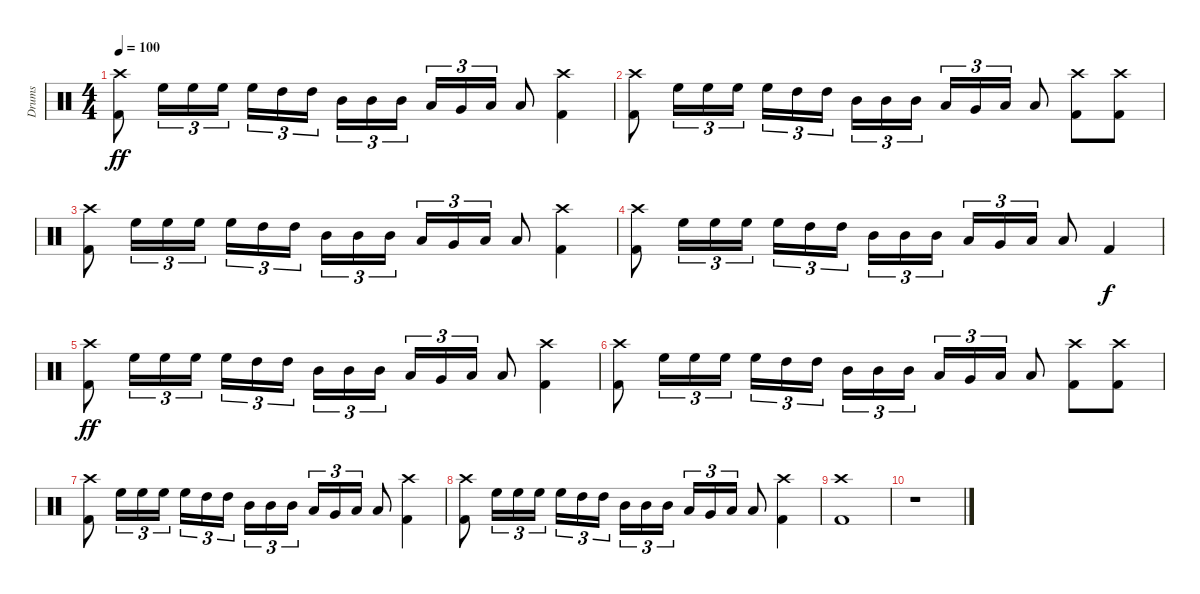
\track ("Drums     " "Drums     ") {instrument percussion}
\staff {score}
\articulation defaults
\ts (4 4)
\tempo 100
\clef neutral
\ks c
("Kick (hit) 2" "Crash high (hit)").8{dy ff} "High Floor Tom (hit)".16{tu (3 2)} "High Floor Tom (hit)".16{tu (3 2)} "High Floor Tom (hit)".16{tu (3 2)} "High Floor Tom (hit)".16{tu (3 2)} "High Tom (hit)".16{tu (3 2)} "High Tom (hit)".16{tu (3 2)} "Mid Tom (hit)".16{tu (3 2)} "Mid Tom (hit)".16{tu (3 2)} "Mid Tom (hit)".16{tu (3 2)} "Low Tom (hit)".16{tu (3 2)} "Very Low Tom (hit)".16{tu (3 2)} "Low Floor Tom (hit)".16{tu (3 2)} "Low Floor Tom (hit)".8 ("Kick (hit) 2" "Crash high (hit)").4 |
("Kick (hit) 2" "Crash high (hit)").8 "High Floor Tom (hit)".16{tu (3 2)} "High Floor Tom (hit)".16{tu (3 2)} "High Floor Tom (hit)".16{tu (3 2)} "High Floor Tom (hit)".16{tu (3 2)} "High Tom (hit)".16{tu (3 2)} "High Tom (hit)".16{tu (3 2)} "Mid Tom (hit)".16{tu (3 2)} "Mid Tom (hit)".16{tu (3 2)} "Mid Tom (hit)".16{tu (3 2)} "Low Tom (hit)".16{tu (3 2)} "Very Low Tom (hit)".16{tu (3 2)} "Low Floor Tom (hit)".16{tu (3 2)} "Low Floor Tom (hit)".8 ("Kick (hit) 2" "Crash high (hit)").8 ("Kick (hit) 2" "Crash high (hit)").8 |
("Kick (hit) 2" "Crash high (hit)").8 "High Floor Tom (hit)".16{tu (3 2)} "High Floor Tom (hit)".16{tu (3 2)} "High Floor Tom (hit)".16{tu (3 2)} "High Floor Tom (hit)".16{tu (3 2)} "High Tom (hit)".16{tu (3 2)} "High Tom (hit)".16{tu (3 2)} "Mid Tom (hit)".16{tu (3 2)} "Mid Tom (hit)".16{tu (3 2)} "Mid Tom (hit)".16{tu (3 2)} "Low Tom (hit)".16{tu (3 2)} "Very Low Tom (hit)".16{tu (3 2)} "Low Floor Tom (hit)".16{tu (3 2)} "Low Floor Tom (hit)".8 ("Kick (hit) 2" "Crash high (hit)").4 |
("Kick (hit) 2" "Crash high (hit)").8 "High Floor Tom (hit)".16{tu (3 2)} "High Floor Tom (hit)".16{tu (3 2)} "High Floor Tom (hit)".16{tu (3 2)} "High Floor Tom (hit)".16{tu (3 2)} "High Tom (hit)".16{tu (3 2)} "High Tom (hit)".16{tu (3 2)} "Mid Tom (hit)".16{tu (3 2)} "Mid Tom (hit)".16{tu (3 2)} "Mid Tom (hit)".16{tu (3 2)} "Low Tom (hit)".16{tu (3 2)} "Very Low Tom (hit)".16{tu (3 2)} "Low Floor Tom (hit)".16{tu (3 2)} "Low Floor Tom (hit)".8 "Kick (hit) 2".4{dy f} |
("Kick (hit) 2" "Crash high (hit)").8{dy ff} "High Floor Tom (hit)".16{tu (3 2)} "High Floor Tom (hit)".16{tu (3 2)} "High Floor Tom (hit)".16{tu (3 2)} "High Floor Tom (hit)".16{tu (3 2)} "High Tom (hit)".16{tu (3 2)} "High Tom (hit)".16{tu (3 2)} "Mid Tom (hit)".16{tu (3 2)} "Mid Tom (hit)".16{tu (3 2)} "Mid Tom (hit)".16{tu (3 2)} "Low Tom (hit)".16{tu (3 2)} "Very Low Tom (hit)".16{tu (3 2)} "Low Floor Tom (hit)".16{tu (3 2)} "Low Floor Tom (hit)".8 ("Kick (hit) 2" "Crash high (hit)").4 |
("Kick (hit) 2" "Crash high (hit)").8 "High Floor Tom (hit)".16{tu (3 2)} "High Floor Tom (hit)".16{tu (3 2)} "High Floor Tom (hit)".16{tu (3 2)} "High Floor Tom (hit)".16{tu (3 2)} "High Tom (hit)".16{tu (3 2)} "High Tom (hit)".16{tu (3 2)} "Mid Tom (hit)".16{tu (3 2)} "Mid Tom (hit)".16{tu (3 2)} "Mid Tom (hit)".16{tu (3 2)} "Low Tom (hit)".16{tu (3 2)} "Very Low Tom (hit)".16{tu (3 2)} "Low Floor Tom (hit)".16{tu (3 2)} "Low Floor Tom (hit)".8 ("Kick (hit) 2" "Crash high (hit)").8 ("Kick (hit) 2" "Crash high (hit)").8 |
("Kick (hit) 2" "Crash high (hit)").8 "High Floor Tom (hit)".16{tu (3 2)} "High Floor Tom (hit)".16{tu (3 2)} "High Floor Tom (hit)".16{tu (3 2)} "High Floor Tom (hit)".16{tu (3 2)} "High Tom (hit)".16{tu (3 2)} "High Tom (hit)".16{tu (3 2)} "Mid Tom (hit)".16{tu (3 2)} "Mid Tom (hit)".16{tu (3 2)} "Mid Tom (hit)".16{tu (3 2)} "Low Tom (hit)".16{tu (3 2)} "Very Low Tom (hit)".16{tu (3 2)} "Low Floor Tom (hit)".16{tu (3 2)} "Low Floor Tom (hit)".8 ("Kick (hit) 2" "Crash high (hit)").4 |
("Kick (hit) 2" "Crash high (hit)").8 "High Floor Tom (hit)".16{tu (3 2)} "High Floor Tom (hit)".16{tu (3 2)} "High Floor Tom (hit)".16{tu (3 2)} "High Floor Tom (hit)".16{tu (3 2)} "High Tom (hit)".16{tu (3 2)} "High Tom (hit)".16{tu (3 2)} "Mid Tom (hit)".16{tu (3 2)} "Mid Tom (hit)".16{tu (3 2)} "Mid Tom (hit)".16{tu (3 2)} "Low Tom (hit)".16{tu (3 2)} "Very Low Tom (hit)".16{tu (3 2)} "Low Floor Tom (hit)".16{tu (3 2)} "Low Floor Tom (hit)".8 ("Kick (hit) 2" "Crash high (hit)").4 |
("Kick (hit) 2" "Crash high (hit)").1 |
r.1
